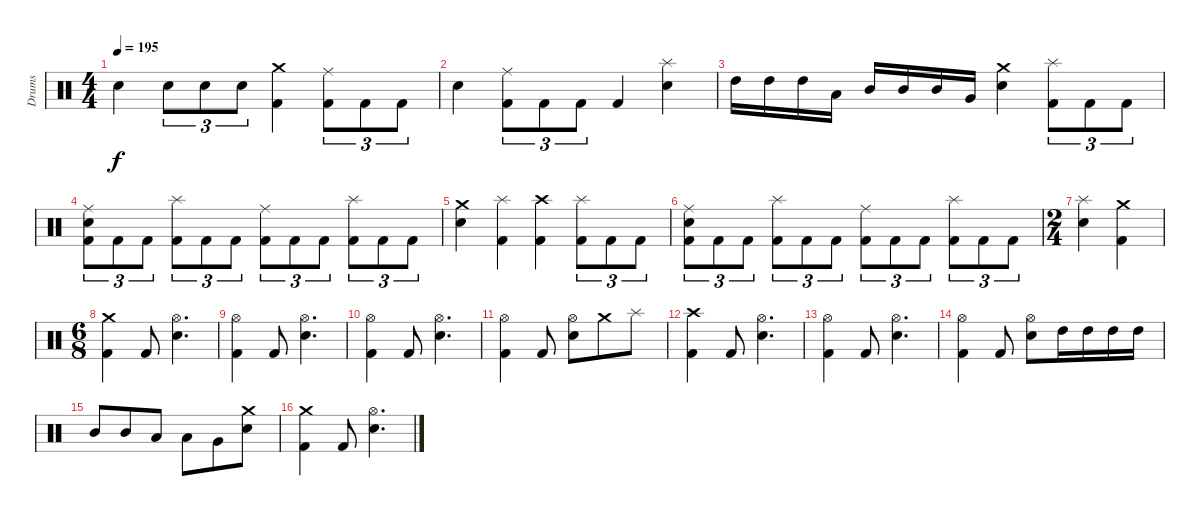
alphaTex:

\track ("Drums" "Drums") {instrument percussion}
\staff {score}
\articulation defaults
\ts (4 4)
\tempo 195
\clef neutral
\ks c "Electric Snare (hit)".4{dy f} "Electric Snare (hit)".8{tu (3 2)} "Electric Snare (hit)".8{tu (3 2)} "Electric Snare (hit)".8{tu (3 2)}
("Crash medium (hit)" "Kick (hit) 2").4 ("Ride (middle)" "Kick (hit) 2").8{tu (3 2)} "Kick (hit) 2".8{tu (3 2)} "Kick (hit) 2".8{tu (3 2)} |
"Electric Snare (hit)".4 ("Ride (middle)" "Kick (hit) 2").8{tu (3 2)} "Kick (hit) 2".8{tu (3 2)} "Kick (hit) 2".8{tu (3 2)} "Kick (hit) 2".4 ("Splash (hit)" "Electric Snare (hit)").4 |
"High Tom (hit)".16 "High Tom (hit)".16 "High Tom (hit)".16 "Low Tom (hit)".16 "Mid Tom (hit)".16 "Mid Tom (hit)".16 "Mid Tom (hit)".16 "Very Low Tom (hit)".16 ("Crash medium (hit)" "Electric Snare (hit)").4 ("Splash (hit)" "Kick (hit) 2").8{tu (3 2)} "Kick (hit) 2".8{tu (3 2)} "Kick (hit) 2".8{tu (3 2)} |
("Ride (middle)" "Electric Snare (hit)" "Kick (hit) 2").8{tu (3 2)} "Kick (hit) 2".8{tu (3 2)} "Kick (hit) 2".8{tu (3 2)} ("Splash (hit)" "Kick (hit) 2").8{tu (3 2)} "Kick (hit) 2".8{tu (3 2)} "Kick (hit) 2".8{tu (3 2)} ("Ride (middle)" "Kick (hit) 2").8{tu (3 2)} "Kick (hit) 2".8{tu (3 2)} "Kick (hit) 2".8{tu (3 2)} ("Splash (hit)" "Kick (hit) 2").8{tu (3 2)} "Kick (hit) 2".8{tu (3 2)} "Kick (hit) 2".8{tu (3 2)} |
("Crash medium (hit)" "Electric Snare (hit)").4 ("Splash (hit)" "Kick (hit) 2").4 ("Crash high (hit)" "Kick (hit) 2").4 ("Splash (hit)" "Kick (hit) 2").8{tu (3 2)} "Kick (hit) 2".8{tu (3 2)} "Kick (hit) 2".8{tu (3 2)} |
("Ride (middle)" "Electric Snare (hit)" "Kick (hit) 2").8{tu (3 2)} "Kick (hit) 2".8{tu (3 2)} "Kick (hit) 2".8{tu (3 2)} ("Splash (hit)" "Kick (hit) 2").8{tu (3 2)} "Kick (hit) 2".8{tu (3 2)} "Kick (hit) 2".8{tu (3 2)} ("Ride (middle)" "Kick (hit) 2").8{tu (3 2)} "Kick (hit) 2".8{tu (3 2)} "Kick (hit) 2".8{tu (3 2)} ("Splash (hit)" "Kick (hit) 2").8{tu (3 2)} "Kick (hit) 2".8{tu (3 2)} "Kick (hit) 2".8{tu (3 2)} |
\ts (2 4)
("Splash (hit)" "Electric Snare (hit)").4 ("Crash medium (hit)" "Kick (hit) 2").4 |
\ts (6 8)
("Crash medium (hit)" "Kick (hit) 2").4 "Kick (hit) 2".8 ("Hi-Hat (open)" "Electric Snare (hit)").4{d} |
("Hi-Hat (open)" "Kick (hit) 2").4 "Kick (hit) 2".8 ("Hi-Hat (open)" "Electric Snare (hit)").4{d} |
("Hi-Hat (open)" "Kick (hit) 2").4 "Kick (hit) 2".8 ("Hi-Hat (open)" "Electric Snare (hit)").4{d} |
("Hi-Hat (open)" "Kick (hit) 2").4 "Kick (hit) 2".8 ("Hi-Hat (open)" "Electric Snare (hit)").8 "Crash medium (hit)".8 "Splash (hit)".8 |
("Crash high (hit)" "Kick (hit) 2").4 "Kick (hit) 2".8 ("Hi-Hat (open)" "Electric Snare (hit)").4{d} |
("Hi-Hat (open)" "Kick (hit) 2").4 "Kick (hit) 2".8 ("Hi-Hat (open)" "Electric Snare (hit)").4{d} |
("Hi-Hat (open)" "Kick (hit) 2").4 "Kick (hit) 2".8 ("Hi-Hat (open)" "Electric Snare (hit)").8 "High Tom (hit)".16 "High Tom (hit)".16 "High Tom (hit)".16 "High Tom (hit)".16 |
"Mid Tom (hit)".8 "Mid Tom (hit)".8 "Low Tom (hit)".8 "Low Tom (hit)".8 "Very Low Tom (hit)".8 ("Crash medium (hit)" "Electric Snare (hit)").8 |
("Crash medium (hit)" "Kick (hit) 2").4 "Kick (hit) 2".8 ("Hi-Hat (open)" "Electric Snare (hit)").4{d}
